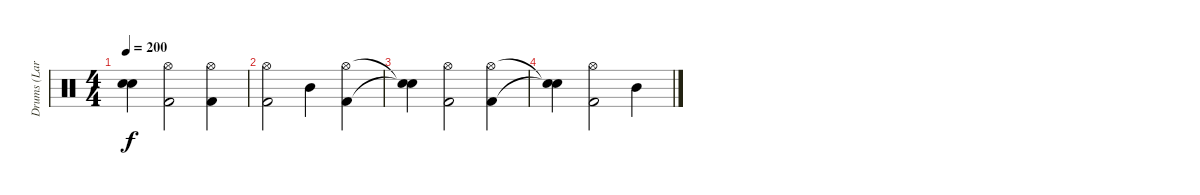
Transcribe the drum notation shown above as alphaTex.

\track ("Drums (Lars Ulrich)" "Drums (Lar") {instrument percussion}
\staff {score}
\articulation defaults
\ts (4 4)
\tempo 200
\clef neutral
\ks c
("Snare (hit)"{t} "Snare (hit)"{t}).4{dy f} ("Hi-Hat (open)" "Kick (hit) 2").2 ("Hi-Hat (open)" "Kick (hit) 2").4 |
("Hi-Hat (open)" "Kick (hit) 2").2 "Mid Tom (hit)".4 ("Hi-Hat (open)" "Kick (hit) 2").4 |
("Snare (hit)"{t} "Snare (hit)"{t}).4 ("Hi-Hat (open)" "Kick (hit) 2").2 ("Hi-Hat (open)" "Kick (hit) 2").4 |
("Snare (hit)"{t} "Snare (hit)"{t}).4 ("Hi-Hat (open)" "Kick (hit) 2").2 "Mid Tom (hit)".4
